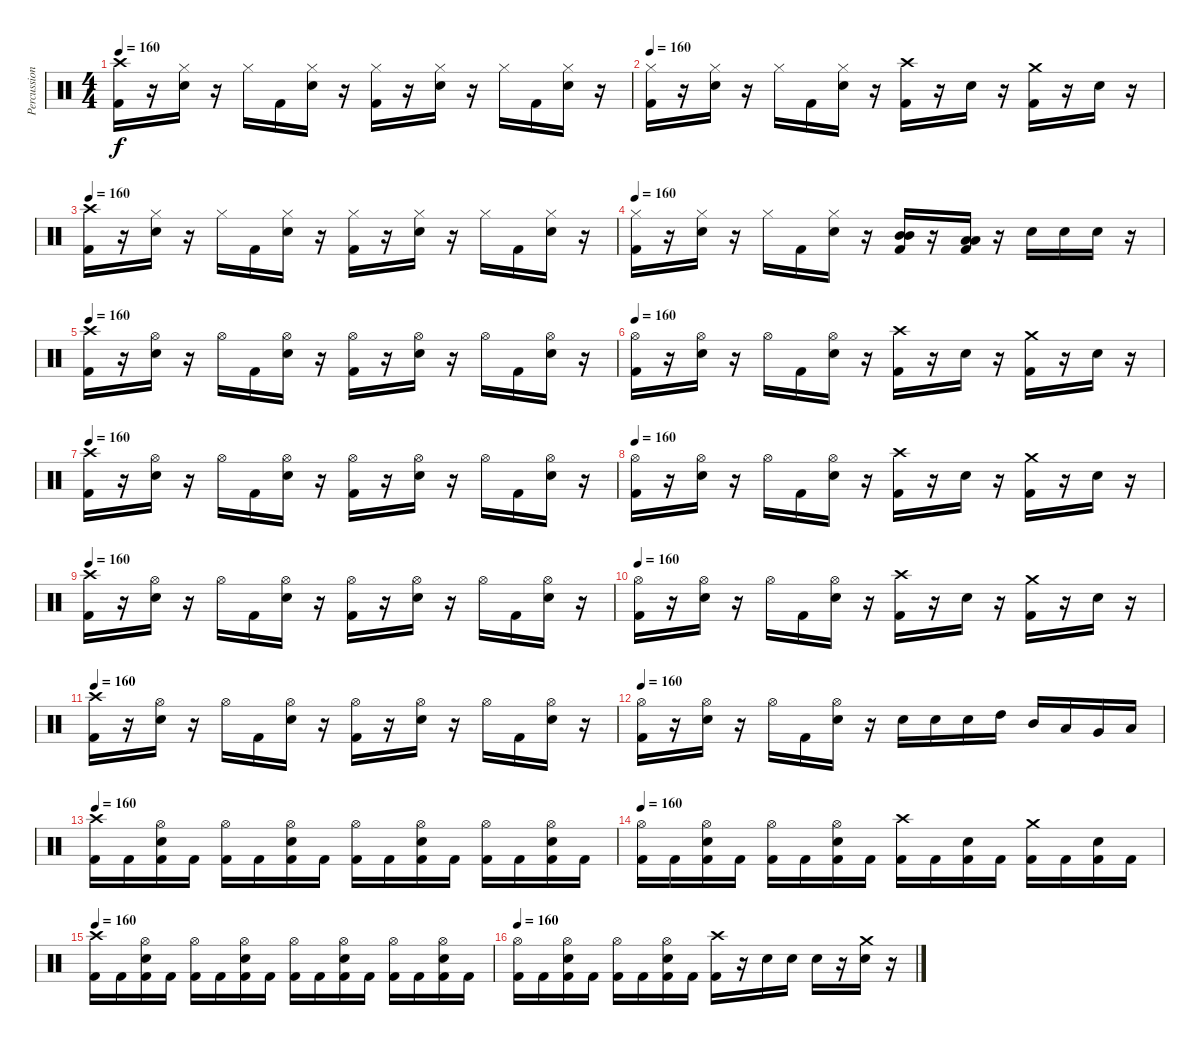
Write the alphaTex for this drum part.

\track ("Percussion" "Percussion") {instrument percussion}
\staff {score}
\articulation defaults
\ts (4 4)
\tempo 160
\clef neutral
\ks c
("Crash high (hit)" "Kick (hit) 2").16{dy f} r.16 ("Hi-Hat (closed)" "Snare (hit) 2").16 r.16 "Hi-Hat (closed)".16 "Kick (hit) 2".16 ("Hi-Hat (closed)" "Snare (hit) 2").16 r.16 ("Hi-Hat (closed)" "Kick (hit) 2").16 r.16 ("Hi-Hat (closed)" "Snare (hit) 2").16 r.16 "Hi-Hat (closed)".16 "Kick (hit) 2".16 ("Hi-Hat (closed)" "Snare (hit) 2").16 r.16 |
\tempo 160
("Hi-Hat (closed)" "Kick (hit) 2").16 r.16 ("Hi-Hat (closed)" "Snare (hit) 2").16 r.16 "Hi-Hat (closed)".16 "Kick (hit) 2".16 ("Hi-Hat (closed)" "Snare (hit) 2").16 r.16 ("Crash high (hit)" "Kick (hit) 2").16 r.16 "Snare (hit) 2".16 r.16 ("Crash medium (hit)" "Kick (hit) 2").16 r.16 "Snare (hit) 2".16 r.16 |
\tempo 160
("Crash high (hit)" "Kick (hit) 2").16 r.16 ("Hi-Hat (closed)" "Snare (hit) 2").16 r.16 "Hi-Hat (closed)".16 "Kick (hit) 2".16 ("Hi-Hat (closed)" "Snare (hit) 2").16 r.16 ("Hi-Hat (closed)" "Kick (hit) 2").16 r.16 ("Hi-Hat (closed)" "Snare (hit) 2").16 r.16 "Hi-Hat (closed)".16 "Kick (hit) 2".16 ("Hi-Hat (closed)" "Snare (hit) 2").16 r.16 |
\tempo 160
("Hi-Hat (closed)" "Kick (hit) 2").16 r.16 ("Hi-Hat (closed)" "Snare (hit) 2").16 r.16 "Hi-Hat (closed)".16 "Kick (hit) 2".16 ("Hi-Hat (closed)" "Snare (hit) 2").16 r.16 ("Mid Tom (hit)" "Mid Tom (hit)" "Kick (hit) 2").16 r.16 ("Low Tom (hit)" "Low Tom (hit)" "Kick (hit) 2").16 r.16 "Snare (hit) 2".16 "Snare (hit) 2".16 "Snare (hit) 2".16 r.16 |
\tempo 160
("Crash high (hit)" "Kick (hit) 2").16 r.16 ("Hi-Hat (open)" "Snare (hit) 2").16 r.16 "Hi-Hat (open)".16 "Kick (hit) 2".16 ("Hi-Hat (open)" "Snare (hit) 2").16 r.16 ("Hi-Hat (open)" "Kick (hit) 2").16 r.16 ("Hi-Hat (open)" "Snare (hit) 2").16 r.16 "Hi-Hat (open)".16 "Kick (hit) 2".16 ("Hi-Hat (open)" "Snare (hit) 2").16 r.16 |
\tempo 160
("Hi-Hat (open)" "Kick (hit) 2").16 r.16 ("Hi-Hat (open)" "Snare (hit) 2").16 r.16 "Hi-Hat (open)".16 "Kick (hit) 2".16 ("Hi-Hat (open)" "Snare (hit) 2").16 r.16 ("Crash high (hit)" "Kick (hit) 2").16 r.16 "Snare (hit) 2".16 r.16 ("Crash medium (hit)" "Kick (hit) 2").16 r.16 "Snare (hit) 2".16 r.16 |
\tempo 160
("Crash high (hit)" "Kick (hit) 2").16 r.16 ("Hi-Hat (open)" "Snare (hit) 2").16 r.16 "Hi-Hat (open)".16 "Kick (hit) 2".16 ("Hi-Hat (open)" "Snare (hit) 2").16 r.16 ("Hi-Hat (open)" "Kick (hit) 2").16 r.16 ("Hi-Hat (open)" "Snare (hit) 2").16 r.16 "Hi-Hat (open)".16 "Kick (hit) 2".16 ("Hi-Hat (open)" "Snare (hit) 2").16 r.16 |
\tempo 160
("Hi-Hat (open)" "Kick (hit) 2").16 r.16 ("Hi-Hat (open)" "Snare (hit) 2").16 r.16 "Hi-Hat (open)".16 "Kick (hit) 2".16 ("Hi-Hat (open)" "Snare (hit) 2").16 r.16 ("Crash high (hit)" "Kick (hit) 2").16 r.16 "Snare (hit) 2".16 r.16 ("Crash medium (hit)" "Kick (hit) 2").16 r.16 "Snare (hit) 2".16 r.16 |
\tempo 160
("Crash high (hit)" "Kick (hit) 2").16 r.16 ("Hi-Hat (open)" "Snare (hit) 2").16 r.16 "Hi-Hat (open)".16 "Kick (hit) 2".16 ("Hi-Hat (open)" "Snare (hit) 2").16 r.16 ("Hi-Hat (open)" "Kick (hit) 2").16 r.16 ("Hi-Hat (open)" "Snare (hit) 2").16 r.16 "Hi-Hat (open)".16 "Kick (hit) 2".16 ("Hi-Hat (open)" "Snare (hit) 2").16 r.16 |
\tempo 160
("Hi-Hat (open)" "Kick (hit) 2").16 r.16 ("Hi-Hat (open)" "Snare (hit) 2").16 r.16 "Hi-Hat (open)".16 "Kick (hit) 2".16 ("Hi-Hat (open)" "Snare (hit) 2").16 r.16 ("Crash high (hit)" "Kick (hit) 2").16 r.16 "Snare (hit) 2".16 r.16 ("Crash medium (hit)" "Kick (hit) 2").16 r.16 "Snare (hit) 2".16 r.16 |
\tempo 160
("Crash high (hit)" "Kick (hit) 2").16 r.16 ("Hi-Hat (open)" "Snare (hit) 2").16 r.16 "Hi-Hat (open)".16 "Kick (hit) 2".16 ("Hi-Hat (open)" "Snare (hit) 2").16 r.16 ("Hi-Hat (open)" "Kick (hit) 2").16 r.16 ("Hi-Hat (open)" "Snare (hit) 2").16 r.16 "Hi-Hat (open)".16 "Kick (hit) 2".16 ("Hi-Hat (open)" "Snare (hit) 2").16 r.16 |
\tempo 160
("Hi-Hat (open)" "Kick (hit) 2").16 r.16 ("Hi-Hat (open)" "Snare (hit) 2").16 r.16 "Hi-Hat (open)".16 "Kick (hit) 2".16 ("Hi-Hat (open)" "Snare (hit) 2").16 r.16 "Snare (hit) 2".16 "Snare (hit) 2".16 "Snare (hit) 2".16 "High Tom (hit)".16 "Mid Tom (hit)".16 "Low Tom (hit)".16 "Very Low Tom (hit)".16 "Low Floor Tom (hit)".16 |
\tempo 160
("Crash high (hit)" "Kick (hit) 2").16 "Kick (hit) 2".16 ("Hi-Hat (open)" "Snare (hit) 2" "Kick (hit) 2").16 "Kick (hit) 2".16 ("Hi-Hat (open)" "Kick (hit) 2").16 "Kick (hit) 2".16 ("Hi-Hat (open)" "Snare (hit) 2" "Kick (hit) 2").16 "Kick (hit) 2".16 ("Hi-Hat (open)" "Kick (hit) 2").16 "Kick (hit) 2".16 ("Hi-Hat (open)" "Snare (hit) 2" "Kick (hit) 2").16 "Kick (hit) 2".16 ("Hi-Hat (open)" "Kick (hit) 2").16 "Kick (hit) 2".16 ("Hi-Hat (open)" "Snare (hit) 2" "Kick (hit) 2").16 "Kick (hit) 2".16 |
\tempo 160
("Hi-Hat (open)" "Kick (hit) 2").16 "Kick (hit) 2".16 ("Hi-Hat (open)" "Snare (hit) 2" "Kick (hit) 2").16 "Kick (hit) 2".16 ("Hi-Hat (open)" "Kick (hit) 2").16 "Kick (hit) 2".16 ("Hi-Hat (open)" "Snare (hit) 2" "Kick (hit) 2").16 "Kick (hit) 2".16 ("Crash high (hit)" "Kick (hit) 2").16 "Kick (hit) 2".16 ("Snare (hit) 2" "Kick (hit) 2").16 "Kick (hit) 2".16 ("Crash medium (hit)" "Kick (hit) 2").16 "Kick (hit) 2".16 ("Snare (hit) 2" "Kick (hit) 2").16 "Kick (hit) 2".16 |
\tempo 160
("Crash high (hit)" "Kick (hit) 2").16 "Kick (hit) 2".16 ("Hi-Hat (open)" "Snare (hit) 2" "Kick (hit) 2").16 "Kick (hit) 2".16 ("Hi-Hat (open)" "Kick (hit) 2").16 "Kick (hit) 2".16 ("Hi-Hat (open)" "Snare (hit) 2" "Kick (hit) 2").16 "Kick (hit) 2".16 ("Hi-Hat (open)" "Kick (hit) 2").16 "Kick (hit) 2".16 ("Hi-Hat (open)" "Snare (hit) 2" "Kick (hit) 2").16 "Kick (hit) 2".16 ("Hi-Hat (open)" "Kick (hit) 2").16 "Kick (hit) 2".16 ("Hi-Hat (open)" "Snare (hit) 2" "Kick (hit) 2").16 "Kick (hit) 2".16 |
\tempo 160
("Hi-Hat (open)" "Kick (hit) 2").16 "Kick (hit) 2".16 ("Hi-Hat (open)" "Snare (hit) 2" "Kick (hit) 2").16 "Kick (hit) 2".16 ("Hi-Hat (open)" "Kick (hit) 2").16 "Kick (hit) 2".16 ("Hi-Hat (open)" "Snare (hit) 2" "Kick (hit) 2").16 "Kick (hit) 2".16 ("Crash high (hit)" "Kick (hit) 2").16 r.16 "Snare (hit) 2".16 "Snare (hit) 2".16 "Snare (hit) 2".16 r.16 ("Crash medium (hit)" "Snare (hit) 2").16 r.16
